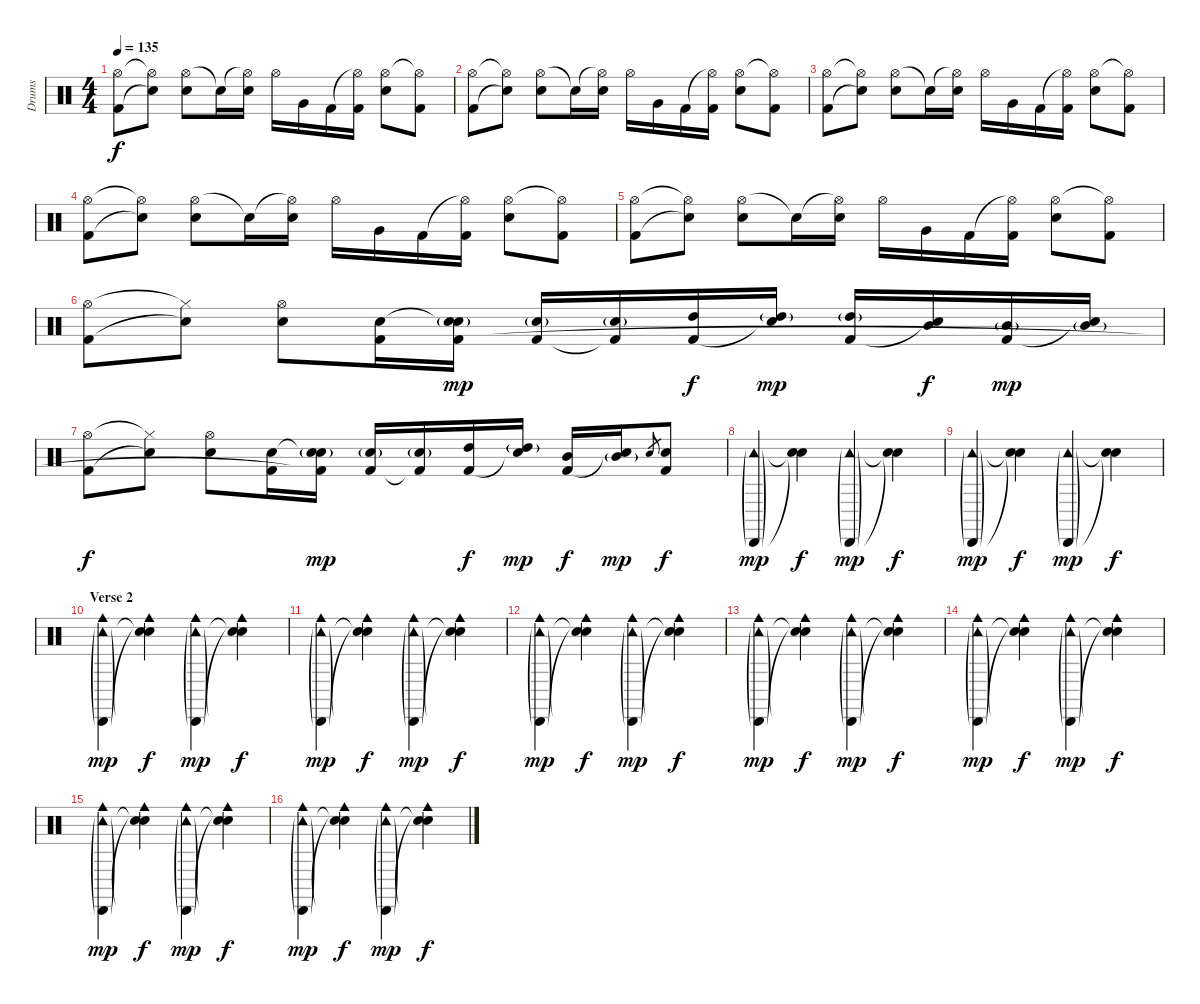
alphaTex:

\track ("Drums" "Drums") {instrument percussion}
\staff {score}
\articulation defaults
\ts (4 4)
\tempo 135
\clef neutral
\ks c
("Hi-Hat (open)" "Kick (hit) 2").8{dy f} ("Hi-Hat (open)"{t} "Snare (hit)"{t}).8 ("Hi-Hat (open)" "Electric Snare (hit)").8 "Snare (hit)"{t}.16 ("Hi-Hat (open)"{t} "Electric Snare (hit)").16 "Hi-Hat (open)".16 "Very Low Tom (hit)".16 "Kick (hit) 2".16 ("Hi-Hat (open)"{t} "Kick (hit) 2").16 ("Hi-Hat (open)" "Electric Snare (hit)").8 ("Hi-Hat (open)"{t} "Kick (hit) 2").8 |
("Hi-Hat (open)" "Kick (hit) 2").8 ("Hi-Hat (open)"{t} "Snare (hit)"{t}).8 ("Hi-Hat (open)" "Electric Snare (hit)").8 "Snare (hit)"{t}.16 ("Hi-Hat (open)"{t} "Electric Snare (hit)").16 "Hi-Hat (open)".16 "Very Low Tom (hit)".16 "Kick (hit) 2".16 ("Hi-Hat (open)"{t} "Kick (hit) 2").16 ("Hi-Hat (open)" "Electric Snare (hit)").8 ("Hi-Hat (open)"{t} "Kick (hit) 2").8 |
("Hi-Hat (open)" "Kick (hit) 2").8 ("Hi-Hat (open)"{t} "Snare (hit)"{t}).8 ("Hi-Hat (open)" "Electric Snare (hit)").8 "Snare (hit)"{t}.16 ("Hi-Hat (open)"{t} "Electric Snare (hit)").16 "Hi-Hat (open)".16 "Very Low Tom (hit)".16 "Kick (hit) 2".16 ("Hi-Hat (open)"{t} "Kick (hit) 2").16 ("Hi-Hat (open)" "Electric Snare (hit)").8 ("Hi-Hat (open)"{t} "Kick (hit) 2").8 |
("Hi-Hat (open)" "Kick (hit) 2").8 ("Hi-Hat (open)"{t} "Snare (hit)"{t}).8 ("Hi-Hat (open)" "Electric Snare (hit)").8 "Snare (hit)"{t}.16 ("Hi-Hat (open)"{t} "Electric Snare (hit)").16 "Hi-Hat (open)".16 "Very Low Tom (hit)".16 "Kick (hit) 2".16 ("Hi-Hat (open)"{t} "Kick (hit) 2").16 ("Hi-Hat (open)" "Electric Snare (hit)").8 ("Hi-Hat (open)"{t} "Kick (hit) 2").8 |
("Hi-Hat (open)" "Kick (hit) 2").8 ("Hi-Hat (open)"{t} "Snare (hit)"{t}).8 ("Hi-Hat (open)" "Electric Snare (hit)").8 "Snare (hit)"{t}.16 ("Hi-Hat (open)"{t} "Electric Snare (hit)").16 "Hi-Hat (open)".16 "Very Low Tom (hit)".16 "Kick (hit) 2".16 ("Hi-Hat (open)"{t} "Kick (hit) 2").16 ("Hi-Hat (open)" "Electric Snare (hit)").8 ("Hi-Hat (open)"{t} "Kick (hit) 2").8 |
("Hi-Hat (open)" "Kick (hit) 2").8 ("Hi-Hat (closed)"{t} "Snare (hit)"{t}).8 ("Hi-Hat (open)" "Electric Snare (hit)").8 ("Electric Snare (hit)" "Kick (hit) 2").16 ("Snare (hit)"{t} "Electric Snare (hit)"{g} "Kick (hit) 2").16{dy mp} ("Electric Snare (hit)"{g} "Kick (hit) 2").16 ("Electric Snare (hit)"{g} "Kick (hit) 2"{t}).16 ("High Tom (hit)" "Kick (hit) 2").16{dy f} ("High Tom (hit)"{g} "Snare (hit)"{t}).16{dy mp} ("High Tom (hit)"{g} "Kick (hit) 2").16 ("Mid Tom (hit)" "Snare (hit)"{t}).16{dy f} ("Mid Tom (hit)"{g} "Kick (hit) 2").16{dy mp} ("Mid Tom (hit)"{g} "Snare (hit)"{t}).16 |
("Hi-Hat (open)" "Kick (hit) 2").8{dy f} ("Hi-Hat (closed)"{t} "Snare (hit)"{t}).8 ("Hi-Hat (open)" "Electric Snare (hit)").8 ("Electric Snare (hit)" "Kick (hit) 2").16 ("Snare (hit)"{t} "Electric Snare (hit)"{g} "Kick (hit) 2"{t}).16{dy mp} ("Electric Snare (hit)"{g} "Kick (hit) 2").16 ("Electric Snare (hit)"{g} "Kick (hit) 2"{t}).16 ("High Tom (hit)" "Kick (hit) 2").16{dy f} ("High Tom (hit)"{g} "Snare (hit)"{t}).16{dy mp} ("Mid Tom (hit)" "Kick (hit) 2").16{dy f} ("Mid Tom (hit)"{g} "Snare (hit)"{t}).16{dy mp} "Electric Snare (hit)".8{gr} ("Electric Snare (hit)" "Kick (hit) 2").8{dy f} |
("Tambourine (hit)"{g} "Cabasa (hit)"{g}).4{dy mp} ("Snare (hit)"{t} "Snare (hit)"{t}).4{dy f} ("Tambourine (hit)"{g} "Cabasa (hit)"{g}).4{dy mp} ("Snare (hit)"{t} "Snare (hit)"{t}).4{dy f} |
("Tambourine (hit)"{g} "Cabasa (hit)"{g}).4{dy mp} ("Snare (hit)"{t} "Snare (hit)"{t}).4{dy f} ("Tambourine (hit)"{g} "Cabasa (hit)"{g}).4{dy mp} ("Snare (hit)"{t} "Snare (hit)"{t}).4{dy f} |
\section ("" "Verse 2")
("Cowbell medium (hit)" "Tambourine (hit)"{g} "Cabasa (hit)"{g}).4{dy mp} ("Cowbell medium (hit)" "Snare (hit)"{t} "Snare (hit)"{t}).4{dy f} ("Cowbell medium (hit)" "Tambourine (hit)"{g} "Cabasa (hit)"{g}).4{dy mp} ("Cowbell medium (hit)" "Snare (hit)"{t} "Snare (hit)"{t}).4{dy f} |
("Cowbell medium (hit)" "Tambourine (hit)"{g} "Cabasa (hit)"{g}).4{dy mp} ("Cowbell medium (hit)" "Snare (hit)"{t} "Snare (hit)"{t}).4{dy f} ("Cowbell medium (hit)" "Tambourine (hit)"{g} "Cabasa (hit)"{g}).4{dy mp} ("Cowbell medium (hit)" "Snare (hit)"{t} "Snare (hit)"{t}).4{dy f} |
("Cowbell medium (hit)" "Tambourine (hit)"{g} "Cabasa (hit)"{g}).4{dy mp} ("Cowbell medium (hit)" "Snare (hit)"{t} "Snare (hit)"{t}).4{dy f} ("Cowbell medium (hit)" "Tambourine (hit)"{g} "Cabasa (hit)"{g}).4{dy mp} ("Cowbell medium (hit)" "Snare (hit)"{t} "Snare (hit)"{t}).4{dy f} |
("Cowbell medium (hit)" "Tambourine (hit)"{g} "Cabasa (hit)"{g}).4{dy mp} ("Cowbell medium (hit)" "Snare (hit)"{t} "Snare (hit)"{t}).4{dy f} ("Cowbell medium (hit)" "Tambourine (hit)"{g} "Cabasa (hit)"{g}).4{dy mp} ("Cowbell medium (hit)" "Snare (hit)"{t} "Snare (hit)"{t}).4{dy f} |
("Cowbell medium (hit)" "Tambourine (hit)"{g} "Cabasa (hit)"{g}).4{dy mp} ("Cowbell medium (hit)" "Snare (hit)"{t} "Snare (hit)"{t}).4{dy f} ("Cowbell medium (hit)" "Tambourine (hit)"{g} "Cabasa (hit)"{g}).4{dy mp} ("Cowbell medium (hit)" "Snare (hit)"{t} "Snare (hit)"{t}).4{dy f} |
("Cowbell medium (hit)" "Tambourine (hit)"{g} "Cabasa (hit)"{g}).4{dy mp} ("Cowbell medium (hit)" "Snare (hit)"{t} "Snare (hit)"{t}).4{dy f} ("Cowbell medium (hit)" "Tambourine (hit)"{g} "Cabasa (hit)"{g}).4{dy mp} ("Cowbell medium (hit)" "Snare (hit)"{t} "Snare (hit)"{t}).4{dy f} |
("Cowbell medium (hit)" "Tambourine (hit)"{g} "Cabasa (hit)"{g}).4{dy mp} ("Cowbell medium (hit)" "Snare (hit)"{t} "Snare (hit)"{t}).4{dy f} ("Cowbell medium (hit)" "Tambourine (hit)"{g} "Cabasa (hit)"{g}).4{dy mp} ("Cowbell medium (hit)" "Snare (hit)"{t} "Snare (hit)"{t}).4{dy f}
